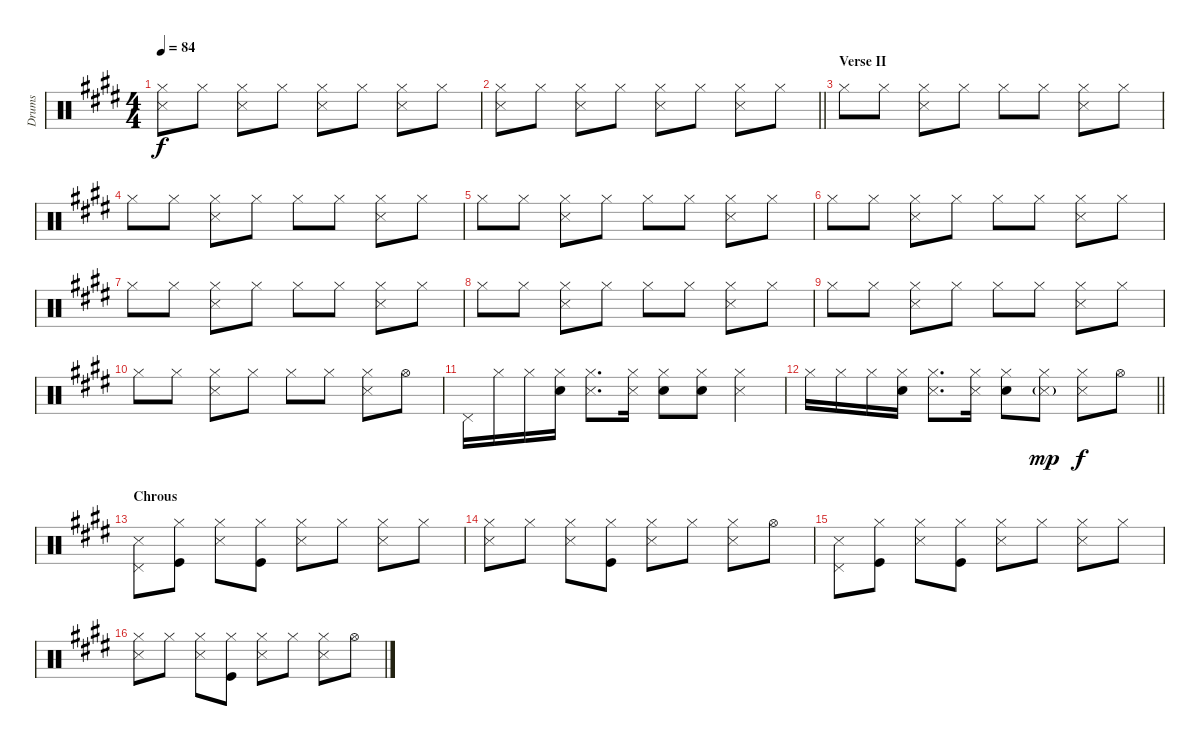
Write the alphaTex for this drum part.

\track ("Drums" "Drums") {instrument percussion}
\staff {score}
\articulation defaults
\ts (4 4)
\tempo 84
\clef neutral
\ks c#minor
("Hi-Hat (closed)" "Snare (side stick) 3").8{dy f} "Hi-Hat (closed)".8 ("Hi-Hat (closed)" "Snare (side stick) 3").8 "Hi-Hat (closed)".8 ("Hi-Hat (closed)" "Snare (side stick) 3").8 "Hi-Hat (closed)".8 ("Hi-Hat (closed)" "Snare (side stick) 3").8 "Hi-Hat (closed)".8 |
\barLineRight lightlight
("Hi-Hat (closed)" "Snare (side stick) 3").8 "Hi-Hat (closed)".8 ("Hi-Hat (closed)" "Snare (side stick) 3").8 "Hi-Hat (closed)".8 ("Hi-Hat (closed)" "Snare (side stick) 3").8 "Hi-Hat (closed)".8 ("Hi-Hat (closed)" "Snare (side stick) 3").8 "Hi-Hat (closed)".8 |
\section ("" "Verse II")
"Hi-Hat (closed)".8 "Hi-Hat (closed)".8 ("Hi-Hat (closed)" "Snare (side stick) 3").8 "Hi-Hat (closed)".8 "Hi-Hat (closed)".8 "Hi-Hat (closed)".8 ("Hi-Hat (closed)" "Snare (side stick) 3").8 "Hi-Hat (closed)".8 |
\ks e "Hi-Hat (closed)".8 "Hi-Hat (closed)".8
("Hi-Hat (closed)" "Snare (side stick) 3").8 "Hi-Hat (closed)".8 "Hi-Hat (closed)".8 "Hi-Hat (closed)".8 ("Hi-Hat (closed)" "Snare (side stick) 3").8 "Hi-Hat (closed)".8 |
\ks c#minor "Hi-Hat (closed)".8 "Hi-Hat (closed)".8
("Hi-Hat (closed)" "Snare (side stick) 3").8 "Hi-Hat (closed)".8 "Hi-Hat (closed)".8 "Hi-Hat (closed)".8 ("Hi-Hat (closed)" "Snare (side stick) 3").8 "Hi-Hat (closed)".8 |
\ks e "Hi-Hat (closed)".8 "Hi-Hat (closed)".8
("Hi-Hat (closed)" "Snare (side stick) 3").8 "Hi-Hat (closed)".8 "Hi-Hat (closed)".8 "Hi-Hat (closed)".8 ("Hi-Hat (closed)" "Snare (side stick) 3").8 "Hi-Hat (closed)".8 |
\ks c#minor "Hi-Hat (closed)".8 "Hi-Hat (closed)".8
("Hi-Hat (closed)" "Snare (side stick) 3").8 "Hi-Hat (closed)".8 "Hi-Hat (closed)".8 "Hi-Hat (closed)".8 ("Hi-Hat (closed)" "Snare (side stick) 3").8 "Hi-Hat (closed)".8 |
\ks e "Hi-Hat (closed)".8 "Hi-Hat (closed)".8
("Hi-Hat (closed)" "Snare (side stick) 3").8 "Hi-Hat (closed)".8 "Hi-Hat (closed)".8 "Hi-Hat (closed)".8 ("Hi-Hat (closed)" "Snare (side stick) 3").8 "Hi-Hat (closed)".8 |
\ks c#minor "Hi-Hat (closed)".8 "Hi-Hat (closed)".8
("Hi-Hat (closed)" "Snare (side stick) 3").8 "Hi-Hat (closed)".8 "Hi-Hat (closed)".8 "Hi-Hat (closed)".8 ("Hi-Hat (closed)" "Snare (side stick) 3").8 "Hi-Hat (closed)".8 |
"Hi-Hat (closed)".8 "Hi-Hat (closed)".8 ("Hi-Hat (closed)" "Snare (side stick) 3").8 "Hi-Hat (closed)".8 "Hi-Hat (closed)".8 "Hi-Hat (closed)".8 ("Hi-Hat (closed)" "Snare (side stick) 3").8 "Hi-Hat (open)".8 |
\ks e "Pedal Hi-Hat (hit)".16 "Hi-Hat (closed)".16 "Hi-Hat (closed)".16
("Hi-Hat (closed)" "Snare (hit)").16 ("Hi-Hat (closed)" "Snare (side stick) 3").8{d} ("Hi-Hat (closed)" "Snare (side stick) 3").16 ("Hi-Hat (closed)" "Snare (hit)").8 ("Hi-Hat (closed)" "Snare (hit)").8 ("Hi-Hat (closed)" "Snare (side stick) 3").4 |
\barLineRight lightlight "Hi-Hat (closed)".16 "Hi-Hat (closed)".16 "Hi-Hat (closed)".16
("Hi-Hat (closed)" "Snare (hit)").16 ("Hi-Hat (closed)" "Snare (side stick) 3").8{d} ("Hi-Hat (closed)" "Snare (side stick) 3").16 ("Hi-Hat (closed)" "Snare (hit)").8 ("Hi-Hat (closed)" "Snare (side stick) 3"{g}).8{dy mp} ("Hi-Hat (closed)" "Snare (side stick) 3").8{dy f} "Hi-Hat (open)".8 |
\section ("" "Chrous")
("Pedal Hi-Hat (hit)" "Snare (side stick) 3").8 ("Hi-Hat (closed)" "Kick (hit)").8 ("Hi-Hat (closed)" "Snare (side stick) 3").8 ("Hi-Hat (closed)" "Kick (hit)").8 ("Hi-Hat (closed)" "Snare (side stick) 3").8 "Hi-Hat (closed)".8 ("Hi-Hat (closed)" "Snare (side stick) 3").8 "Hi-Hat (closed)".8 |
("Hi-Hat (closed)" "Snare (side stick) 3").8 "Hi-Hat (closed)".8 ("Hi-Hat (closed)" "Snare (side stick) 3").8 ("Hi-Hat (closed)" "Kick (hit)").8 ("Hi-Hat (closed)" "Snare (side stick) 3").8 "Hi-Hat (closed)".8 ("Hi-Hat (closed)" "Snare (side stick) 3").8 "Hi-Hat (open)".8 |
("Pedal Hi-Hat (hit)" "Snare (side stick) 3").8 ("Hi-Hat (closed)" "Kick (hit)").8 ("Hi-Hat (closed)" "Snare (side stick) 3").8 ("Hi-Hat (closed)" "Kick (hit)").8 ("Hi-Hat (closed)" "Snare (side stick) 3").8 "Hi-Hat (closed)".8 ("Hi-Hat (closed)" "Snare (side stick) 3").8 "Hi-Hat (closed)".8 |
("Hi-Hat (closed)" "Snare (side stick) 3").8 "Hi-Hat (closed)".8 ("Hi-Hat (closed)" "Snare (side stick) 3").8 ("Hi-Hat (closed)" "Kick (hit)").8 ("Hi-Hat (closed)" "Snare (side stick) 3").8 "Hi-Hat (closed)".8 ("Hi-Hat (closed)" "Snare (side stick) 3").8 "Hi-Hat (open)".8
